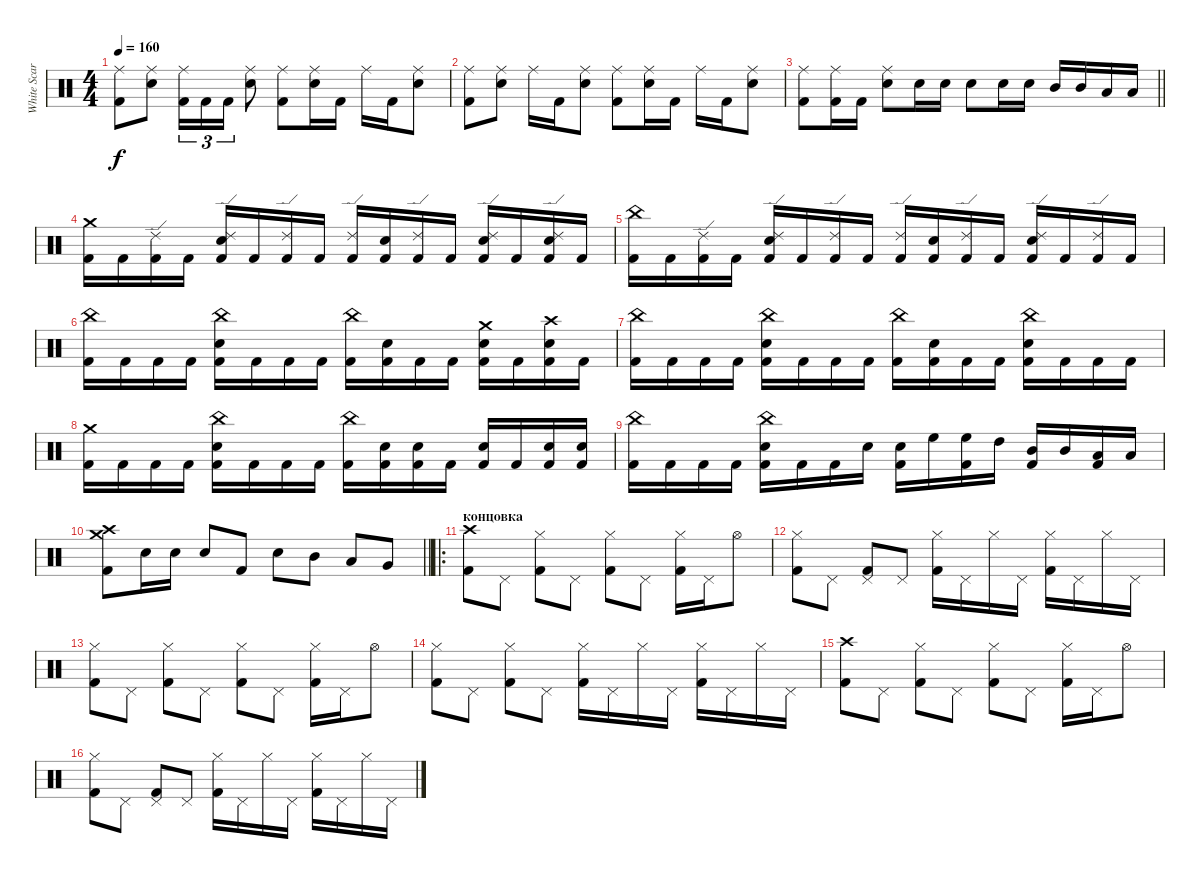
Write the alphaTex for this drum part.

\track ("White Scar" "White Scar") {instrument percussion}
\staff {score}
\articulation defaults
\ts (4 4)
\tempo 160
\clef neutral
\ks c
("Ride (middle)" "Kick (hit) 2").8{dy f} ("Ride (middle)" "Snare (hit) 2").8 ("Ride (middle)" "Kick (hit) 2").16{tu (3 2)} "Kick (hit) 2".16{tu (3 2)} "Kick (hit) 2".16{tu (3 2)} ("Ride (middle)" "Snare (hit) 2").8 ("Ride (middle)" "Kick (hit) 2").8 ("Ride (middle)" "Snare (hit) 2").16 "Kick (hit) 2".16 "Ride (middle)".16 "Kick (hit) 2".16 ("Ride (middle)" "Snare (hit) 2").8 |
("Ride (middle)" "Kick (hit) 2").8 ("Ride (middle)" "Snare (hit) 2").8 "Ride (middle)".16 "Kick (hit) 2".16 ("Ride (middle)" "Snare (hit) 2").8 ("Ride (middle)" "Kick (hit) 2").8 ("Ride (middle)" "Snare (hit) 2").16 "Kick (hit) 2".16 "Ride (middle)".16 "Kick (hit) 2".16 ("Ride (middle)" "Snare (hit) 2").8 |
\barLineRight lightlight
("Ride (middle)" "Kick (hit) 2").8 ("Ride (middle)" "Kick (hit) 2").16 "Kick (hit) 2".16 ("Ride (middle)" "Snare (hit) 2").8 "Snare (hit) 2".16 "Snare (hit) 2".16 "Snare (hit) 2".8 "Snare (hit) 2".16 "Snare (hit) 2".16 "Mid Tom (hit)".16 "Mid Tom (hit)".16 "Low Tom (hit)".16 "Low Tom (hit)".16 |
("Crash medium (hit)" "Kick (hit) 2").16 "Kick (hit) 2".16 ("Ride (edge) 2" "Kick (hit) 2").16 "Kick (hit) 2".16 ("Ride (edge) 2" "Snare (hit) 2" "Kick (hit) 2").16 "Kick (hit) 2".16 ("Ride (edge) 2" "Kick (hit) 2").16 "Kick (hit) 2".16 ("Ride (edge) 2" "Kick (hit) 2").16 ("Snare (hit) 2" "Kick (hit) 2").16 ("Ride (edge) 2" "Kick (hit) 2").16 "Kick (hit) 2".16 ("Ride (edge) 2" "Snare (hit) 2" "Kick (hit) 2").16 "Kick (hit) 2".16 ("Ride (edge) 2" "Snare (hit) 2" "Kick (hit) 2").16 "Kick (hit) 2".16 |
("China (hit)" "Kick (hit) 2").16 "Kick (hit) 2".16 ("Ride (edge) 2" "Kick (hit) 2").16 "Kick (hit) 2".16 ("Ride (edge) 2" "Snare (hit) 2" "Kick (hit) 2").16 "Kick (hit) 2".16 ("Ride (edge) 2" "Kick (hit) 2").16 "Kick (hit) 2".16 ("Ride (edge) 2" "Kick (hit) 2").16 ("Snare (hit) 2" "Kick (hit) 2").16 ("Ride (edge) 2" "Kick (hit) 2").16 "Kick (hit) 2".16 ("Ride (edge) 2" "Snare (hit) 2" "Kick (hit) 2").16 "Kick (hit) 2".16 ("Ride (edge) 2" "Kick (hit) 2").16 "Kick (hit) 2".16 |
("China (hit)" "Kick (hit) 2").16 "Kick (hit) 2".16 "Kick (hit) 2".16 "Kick (hit) 2".16 ("China (hit)" "Snare (hit) 2" "Kick (hit) 2").16 "Kick (hit) 2".16 "Kick (hit) 2".16 "Kick (hit) 2".16 ("China (hit)" "Kick (hit) 2").16 ("Snare (hit) 2" "Kick (hit) 2").16 "Kick (hit) 2".16 "Kick (hit) 2".16 ("Crash medium (hit)" "Snare (hit) 2" "Kick (hit) 2").16 "Kick (hit) 2".16 ("Crash high (hit)" "Snare (hit) 2" "Kick (hit) 2").16 "Kick (hit) 2".16 |
("China (hit)" "Kick (hit) 2").16 "Kick (hit) 2".16 "Kick (hit) 2".16 "Kick (hit) 2".16 ("China (hit)" "Snare (hit) 2" "Kick (hit) 2").16 "Kick (hit) 2".16 "Kick (hit) 2".16 "Kick (hit) 2".16 ("China (hit)" "Kick (hit) 2").16 ("Snare (hit) 2" "Kick (hit) 2").16 "Kick (hit) 2".16 "Kick (hit) 2".16 ("China (hit)" "Snare (hit) 2" "Kick (hit) 2").16 "Kick (hit) 2".16 "Kick (hit) 2".16 "Kick (hit) 2".16 |
("Crash medium (hit)" "Kick (hit) 2").16 "Kick (hit) 2".16 "Kick (hit) 2".16 "Kick (hit) 2".16 ("China (hit)" "Snare (hit) 2" "Kick (hit) 2").16 "Kick (hit) 2".16 "Kick (hit) 2".16 "Kick (hit) 2".16 ("China (hit)" "Kick (hit) 2").16 ("Snare (hit) 2" "Kick (hit) 2").16 ("Snare (hit) 2" "Kick (hit) 2").16 "Kick (hit) 2".16 ("Snare (hit) 2" "Kick (hit) 2").16 "Kick (hit) 2".16 ("Snare (hit) 2" "Kick (hit) 2").16 ("Snare (hit) 2" "Kick (hit) 2").16 |
("China (hit)" "Kick (hit) 2").16 "Kick (hit) 2".16 "Kick (hit) 2".16 "Kick (hit) 2".16 ("China (hit)" "Snare (hit) 2" "Kick (hit) 2").16 "Kick (hit) 2".16 "Kick (hit) 2".16 "Snare (hit) 2".16 ("Snare (hit) 2" "Kick (hit) 2").16 "High Floor Tom (hit)".16 ("High Floor Tom (hit)" "Kick (hit) 2").16 "High Tom (hit)".16 ("Mid Tom (hit)" "Kick (hit) 2").16 "Mid Tom (hit)".16 ("Low Tom (hit)" "Kick (hit) 2").16 "Low Tom (hit)".16 |
\barLineRight lightlight
("Crash medium (hit)" "Crash high (hit)" "Kick (hit) 2").8 "Snare (hit) 2".16 "Snare (hit) 2".16 "Snare (hit) 2".8 "Kick (hit) 2".8 "Snare (hit) 2".8 "Mid Tom (hit)".8 "Low Tom (hit)".8 "Very Low Tom (hit)".8 |
\ro
\section ("" "концовка")
("Crash high (hit)" "Kick (hit) 2").8 "Pedal Hi-Hat (hit)".8 ("Hi-Hat (closed)" "Kick (hit) 2").8 "Pedal Hi-Hat (hit)".8 ("Hi-Hat (closed)" "Kick (hit) 2").8 "Pedal Hi-Hat (hit)".8 ("Hi-Hat (closed)" "Kick (hit) 2").16 "Pedal Hi-Hat (hit)".16 "Hi-Hat (open)".8 |
("Hi-Hat (closed)" "Kick (hit) 2").8 "Pedal Hi-Hat (hit)".8 ("Pedal Hi-Hat (hit)" "Kick (hit) 2").8 "Pedal Hi-Hat (hit)".8 ("Hi-Hat (closed)" "Kick (hit) 2").16 "Pedal Hi-Hat (hit)".16 "Hi-Hat (closed)".16 "Pedal Hi-Hat (hit)".16 ("Hi-Hat (closed)" "Kick (hit) 2").16 "Pedal Hi-Hat (hit)".16 "Hi-Hat (closed)".16 "Pedal Hi-Hat (hit)".16 |
("Hi-Hat (closed)" "Kick (hit) 2").8 "Pedal Hi-Hat (hit)".8 ("Hi-Hat (closed)" "Kick (hit) 2").8 "Pedal Hi-Hat (hit)".8 ("Hi-Hat (closed)" "Kick (hit) 2").8 "Pedal Hi-Hat (hit)".8 ("Hi-Hat (closed)" "Kick (hit) 2").16 "Pedal Hi-Hat (hit)".16 "Hi-Hat (open)".8 |
("Hi-Hat (closed)" "Kick (hit) 2").8 "Pedal Hi-Hat (hit)".8 ("Hi-Hat (closed)" "Kick (hit) 2").8 "Pedal Hi-Hat (hit)".8 ("Hi-Hat (closed)" "Kick (hit) 2").16 "Pedal Hi-Hat (hit)".16 "Hi-Hat (closed)".16 "Pedal Hi-Hat (hit)".16 ("Hi-Hat (closed)" "Kick (hit) 2").16 "Pedal Hi-Hat (hit)".16 "Hi-Hat (closed)".16 "Pedal Hi-Hat (hit)".16 |
("Crash high (hit)" "Kick (hit) 2").8 "Pedal Hi-Hat (hit)".8 ("Hi-Hat (closed)" "Kick (hit) 2").8 "Pedal Hi-Hat (hit)".8 ("Hi-Hat (closed)" "Kick (hit) 2").8 "Pedal Hi-Hat (hit)".8 ("Hi-Hat (closed)" "Kick (hit) 2").16 "Pedal Hi-Hat (hit)".16 "Hi-Hat (open)".8 |
("Hi-Hat (closed)" "Kick (hit) 2").8 "Pedal Hi-Hat (hit)".8 ("Pedal Hi-Hat (hit)" "Kick (hit) 2").8 "Pedal Hi-Hat (hit)".8 ("Hi-Hat (closed)" "Kick (hit) 2").16 "Pedal Hi-Hat (hit)".16 "Hi-Hat (closed)".16 "Pedal Hi-Hat (hit)".16 ("Hi-Hat (closed)" "Kick (hit) 2").16 "Pedal Hi-Hat (hit)".16 "Hi-Hat (closed)".16 "Pedal Hi-Hat (hit)".16
